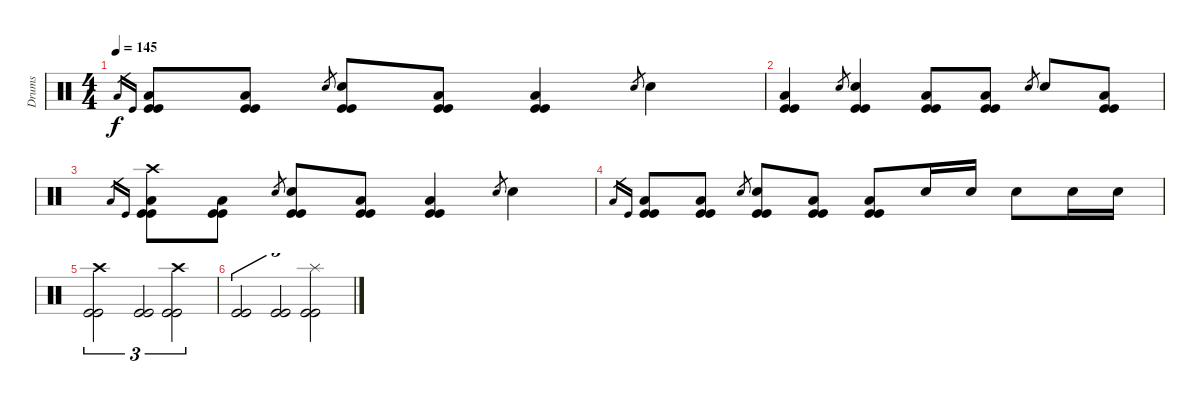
\track ("Drums" "Drums") {instrument percussion}
\staff {score}
\articulation defaults
\ts (4 4)
\tempo 145
\clef neutral
\ks c "Low Floor Tom (hit)".16{gr dy f} "Kick (hit)".16{gr}
("Low Floor Tom (hit)" "Kick (hit)" "Kick (hit)").8 ("Low Floor Tom (hit)" "Kick (hit)" "Kick (hit)").8 "Electric Snare (hit)".8{gr} ("Electric Snare (hit)" "Kick (hit)" "Kick (hit)").8 ("Low Floor Tom (hit)" "Kick (hit)" "Kick (hit)").8 ("Low Floor Tom (hit)" "Kick (hit)" "Kick (hit)").4 "Electric Snare (hit)".8{gr} "Electric Snare (hit)".4 |
("Low Floor Tom (hit)" "Kick (hit)" "Kick (hit)").4 "Electric Snare (hit)".8{gr} ("Electric Snare (hit)" "Kick (hit)" "Kick (hit)").4 ("Low Floor Tom (hit)" "Kick (hit)" "Kick (hit)").8 ("Low Floor Tom (hit)" "Kick (hit)" "Kick (hit)").8 "Electric Snare (hit)".8{gr} "Electric Snare (hit)".8 ("Low Floor Tom (hit)" "Kick (hit)" "Kick (hit)").8 |
"Low Floor Tom (hit)".16{gr} "Kick (hit)".16{gr} ("Crash high (hit)" "Low Floor Tom (hit)" "Kick (hit)" "Kick (hit)").8 ("Low Floor Tom (hit)" "Kick (hit)" "Kick (hit)").8 "Electric Snare (hit)".8{gr} ("Electric Snare (hit)" "Kick (hit)" "Kick (hit)").8 ("Low Floor Tom (hit)" "Kick (hit)" "Kick (hit)").8 ("Low Floor Tom (hit)" "Kick (hit)" "Kick (hit)").4 "Electric Snare (hit)".8{gr} "Electric Snare (hit)".4 |
"Low Floor Tom (hit)".16{gr} "Kick (hit)".16{gr} ("Low Floor Tom (hit)" "Kick (hit)" "Kick (hit)").8 ("Low Floor Tom (hit)" "Kick (hit)" "Kick (hit)").8 "Electric Snare (hit)".8{gr} ("Electric Snare (hit)" "Kick (hit)" "Kick (hit)").8 ("Low Floor Tom (hit)" "Kick (hit)" "Kick (hit)").8 ("Low Floor Tom (hit)" "Kick (hit)" "Kick (hit)").8 "Electric Snare (hit)".16 "Electric Snare (hit)".16 "Electric Snare (hit)".8 "Electric Snare (hit)".16 "Electric Snare (hit)".16 |
("Crash high (hit)" "Kick (hit)" "Kick (hit)").2{tu (3 2)} ("Kick (hit)" "Kick (hit)").2{tu (3 2)} ("Crash high (hit)" "Kick (hit)" "Kick (hit)").2{tu (3 2)} |
("Kick (hit)" "Kick (hit)").2{tu (3 2)} ("Kick (hit)" "Kick (hit)").2{tu (3 2)} ("Splash (hit)" "Kick (hit)" "Kick (hit)").2{tu (3 2)}
